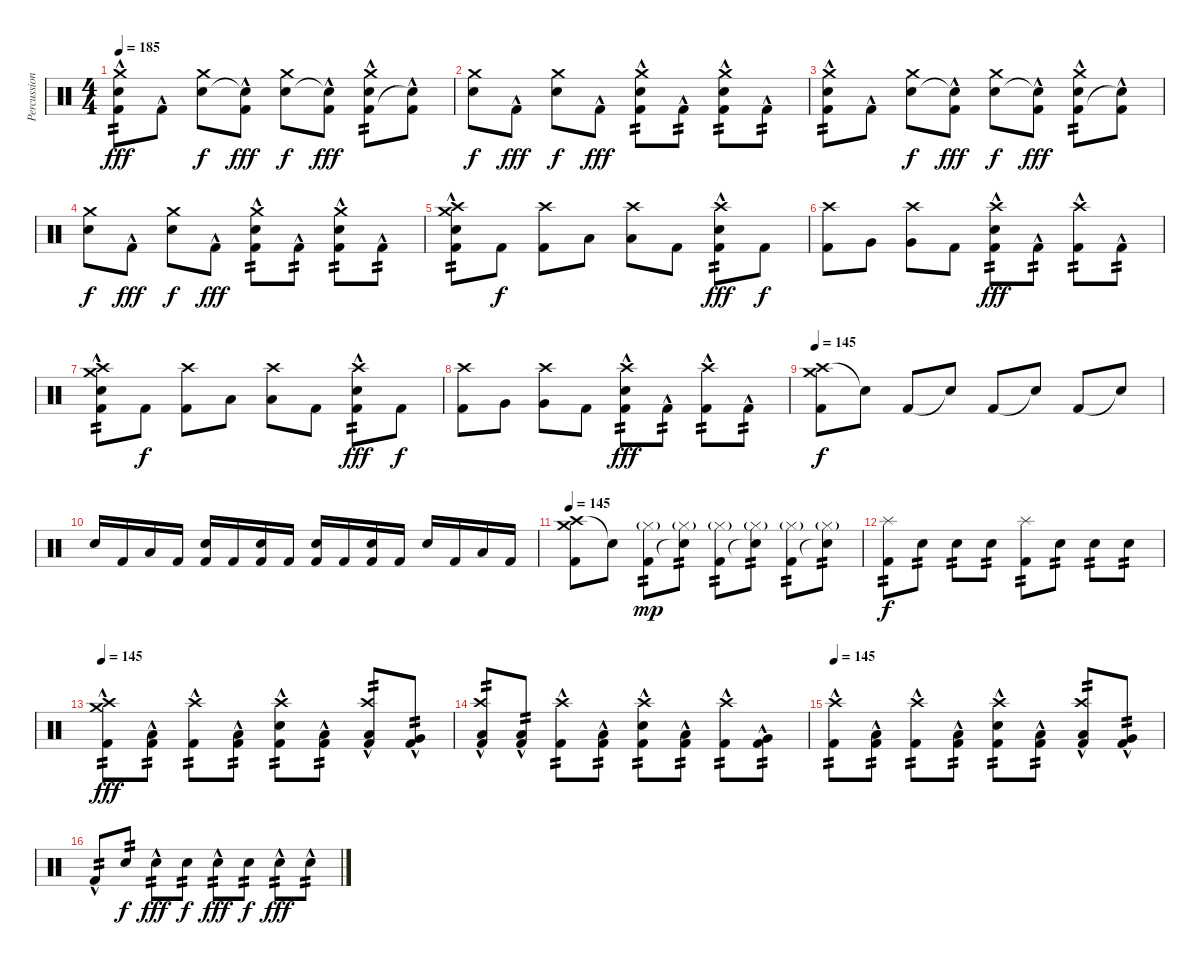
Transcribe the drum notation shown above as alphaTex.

\track ("Percussion" "Percussion") {instrument percussion}
\staff {score}
\articulation defaults
\ts (4 4)
\tempo 185
\clef neutral
\ks c
("Crash medium (hit)" "Kick (hit) 2"{hac} "Snare (hit) 2").8{tp 2 dy fff} "Kick (hit) 2"{hac}.8 ("Crash medium (hit)" "Snare (hit) 2").8{dy f} ("Kick (hit) 2"{hac} "Snare (hit)"{t}).8{dy fff} ("Crash medium (hit)" "Snare (hit) 2").8{dy f} ("Kick (hit) 2"{hac} "Snare (hit)"{t}).8{dy fff} ("Crash medium (hit)" "Kick (hit) 2"{hac} "Snare (hit) 2").8{tp 2} ("Kick (hit) 2"{hac} "Snare (hit)"{t}).8 |
("Crash medium (hit)" "Snare (hit) 2").8{dy f} "Kick (hit) 2"{hac}.8{dy fff} ("Crash medium (hit)" "Snare (hit) 2").8{dy f} "Kick (hit) 2"{hac}.8{dy fff} ("Crash medium (hit)" "Kick (hit) 2"{hac} "Snare (hit) 2").8{tp 2} "Kick (hit) 2"{hac}.8{tp 2} ("Crash medium (hit)" "Kick (hit) 2"{hac} "Snare (hit) 2").8{tp 2} "Kick (hit) 2"{hac}.8{tp 2} |
("Crash medium (hit)" "Kick (hit) 2"{hac} "Snare (hit) 2").8{tp 2} "Kick (hit) 2"{hac}.8 ("Crash medium (hit)" "Snare (hit) 2").8{dy f} ("Kick (hit) 2"{hac} "Snare (hit)"{t}).8{dy fff} ("Crash medium (hit)" "Snare (hit) 2").8{dy f} ("Kick (hit) 2"{hac} "Snare (hit)"{t}).8{dy fff} ("Crash medium (hit)" "Kick (hit) 2"{hac} "Snare (hit) 2").8{tp 2} ("Kick (hit) 2"{hac} "Snare (hit)"{t}).8 |
("Crash medium (hit)" "Snare (hit) 2").8{dy f} "Kick (hit) 2"{hac}.8{dy fff} ("Crash medium (hit)" "Snare (hit) 2").8{dy f} "Kick (hit) 2"{hac}.8{dy fff} ("Crash medium (hit)" "Kick (hit) 2"{hac} "Snare (hit) 2").8{tp 2} "Kick (hit) 2"{hac}.8{tp 2} ("Crash medium (hit)" "Kick (hit) 2"{hac} "Snare (hit) 2").8{tp 2} "Kick (hit) 2"{hac}.8{tp 2} |
("Crash high (hit)" "Crash medium (hit)" "Kick (hit) 2"{hac} "Snare (hit) 2").8{tp 2} "Kick (hit) 2".8{dy f} ("Crash high (hit)" "Kick (hit) 2").8 "Low Tom (hit)".8 ("Crash high (hit)" "Low Tom (hit)").8 "Kick (hit) 2".8 ("Crash high (hit)" "Kick (hit) 2"{hac} "Snare (hit) 2").8{tp 2 dy fff} "Kick (hit) 2".8{dy f} |
("Crash high (hit)" "Kick (hit) 2").8 "Very Low Tom (hit)".8 ("Crash high (hit)" "Very Low Tom (hit)").8 "Kick (hit) 2".8 ("Crash high (hit)" "Kick (hit) 2"{hac} "Snare (hit) 2").8{tp 2 dy fff} "Kick (hit) 2"{hac}.8{tp 2} ("Crash high (hit)" "Kick (hit) 2"{hac}).8{tp 2} "Kick (hit) 2"{hac}.8{tp 2} |
("Crash high (hit)" "Crash medium (hit)" "Kick (hit) 2"{hac} "Snare (hit) 2").8{tp 2} "Kick (hit) 2".8{dy f} ("Crash high (hit)" "Kick (hit) 2").8 "Low Tom (hit)".8 ("Crash high (hit)" "Low Tom (hit)").8 "Kick (hit) 2".8 ("Crash high (hit)" "Kick (hit) 2"{hac} "Snare (hit) 2").8{tp 2 dy fff} "Kick (hit) 2".8{dy f} |
("Crash high (hit)" "Kick (hit) 2").8 "Very Low Tom (hit)".8 ("Crash high (hit)" "Very Low Tom (hit)").8 "Kick (hit) 2".8 ("Crash high (hit)" "Kick (hit) 2"{hac} "Snare (hit) 2").8{tp 2 dy fff} "Kick (hit) 2"{hac}.8{tp 2} ("Crash high (hit)" "Kick (hit) 2"{hac}).8{tp 2} "Kick (hit) 2"{hac}.8{tp 2} |
\tempo 145
("Crash high (hit)" "Crash medium (hit)" "Kick (hit) 2").8{dy f} "Snare (hit)"{t}.8 "Kick (hit) 2".8 "Snare (hit)"{t}.8 "Kick (hit) 2".8 "Snare (hit)"{t}.8 "Kick (hit) 2".8 "Snare (hit)"{t}.8 |
"Snare (hit) 2".16 "Kick (hit) 2".16 "Low Tom (hit)".16 "Kick (hit) 2".16 ("Snare (hit) 2" "Kick (hit) 2").16 "Kick (hit) 2".16 ("Snare (hit) 2" "Kick (hit) 2").16 "Kick (hit) 2".16 ("Snare (hit) 2" "Kick (hit) 2").16 "Kick (hit) 2".16 ("Snare (hit) 2" "Kick (hit) 2").16 "Kick (hit) 2".16 "Snare (hit) 2".16 "Kick (hit) 2".16 "Low Tom (hit)".16 "Kick (hit) 2".16 |
\tempo 145
("Crash high (hit)" "Crash medium (hit)" "Kick (hit) 2").8 "Snare (hit)"{t}.8 ("Hi-Hat (closed)"{g} "Kick (hit) 2").8{tp 2 dy mp} ("Hi-Hat (closed)"{g} "Snare (hit)"{t}).8{tp 2} ("Hi-Hat (closed)"{g} "Kick (hit) 2").8{tp 2} ("Hi-Hat (closed)"{g} "Snare (hit)"{t}).8{tp 2} ("Hi-Hat (closed)"{g} "Kick (hit) 2").8{tp 2} ("Hi-Hat (closed)"{g} "Snare (hit)"{t}).8{tp 2} |
("Kick (hit) 2" "Splash (hit)").8{tp 2 dy f} "Snare (hit) 2".8{tp 2} "Snare (hit) 2".8{tp 2} "Snare (hit) 2".8{tp 2} ("Kick (hit) 2" "Splash (hit)").8{tp 2} "Snare (hit) 2".8{tp 2} "Snare (hit) 2".8{tp 2} "Snare (hit) 2".8{tp 2} |
\tempo 145
("Crash high (hit)" "Crash medium (hit)" "Kick (hit) 2"{hac}).8{tp 2 dy fff} ("Low Tom (hit)"{hac} "Kick (hit) 2"{hac}).8{tp 2} ("Crash high (hit)" "Kick (hit) 2"{hac}).8{tp 2} ("Low Tom (hit)"{hac} "Kick (hit) 2"{hac}).8{tp 2} ("Crash high (hit)" "Snare (hit) 2" "Kick (hit) 2"{hac}).8{tp 2} ("Low Tom (hit)"{hac} "Kick (hit) 2"{hac}).8{tp 2} ("Crash high (hit)" "Low Tom (hit)"{hac} "Kick (hit) 2"{hac}).8{tp 2} ("Very Low Tom (hit)"{hac} "Kick (hit) 2"{hac}).8{tp 2} |
("Crash high (hit)" "Low Tom (hit)" "Kick (hit) 2"{hac}).8{tp 2} ("Low Tom (hit)"{hac} "Kick (hit) 2"{hac}).8{tp 2} ("Crash high (hit)" "Kick (hit) 2"{hac}).8{tp 2} ("Low Tom (hit)"{hac} "Kick (hit) 2"{hac}).8{tp 2} ("Crash high (hit)" "Snare (hit) 2" "Kick (hit) 2"{hac}).8{tp 2} ("Low Tom (hit)"{hac} "Kick (hit) 2"{hac}).8{tp 2} ("Crash high (hit)" "Kick (hit) 2"{hac}).8{tp 2} ("Very Low Tom (hit)"{hac} "Kick (hit) 2"{hac}).8{tp 2} |
\tempo 145
("Crash high (hit)" "Kick (hit) 2"{hac}).8{tp 2} ("Low Tom (hit)"{hac} "Kick (hit) 2"{hac}).8{tp 2} ("Crash high (hit)" "Kick (hit) 2"{hac}).8{tp 2} ("Low Tom (hit)"{hac} "Kick (hit) 2"{hac}).8{tp 2} ("Crash high (hit)" "Snare (hit) 2" "Kick (hit) 2"{hac}).8{tp 2} ("Low Tom (hit)"{hac} "Kick (hit) 2"{hac}).8{tp 2} ("Crash high (hit)" "Low Tom (hit)"{hac} "Kick (hit) 2"{hac}).8{tp 2} ("Very Low Tom (hit)"{hac} "Kick (hit) 2"{hac}).8{tp 2} |
"Kick (hit) 2"{hac}.8{tp 2} "Snare (hit) 2".8{tp 2 dy f} "Snare (hit) 2"{hac}.8{tp 2 dy fff} "Snare (hit) 2".8{tp 2 dy f} "Snare (hit) 2"{hac}.8{tp 2 dy fff} "Snare (hit) 2".8{tp 2 dy f} "Snare (hit) 2"{hac}.8{tp 2 dy fff} "Snare (hit) 2"{hac}.8{tp 2}
